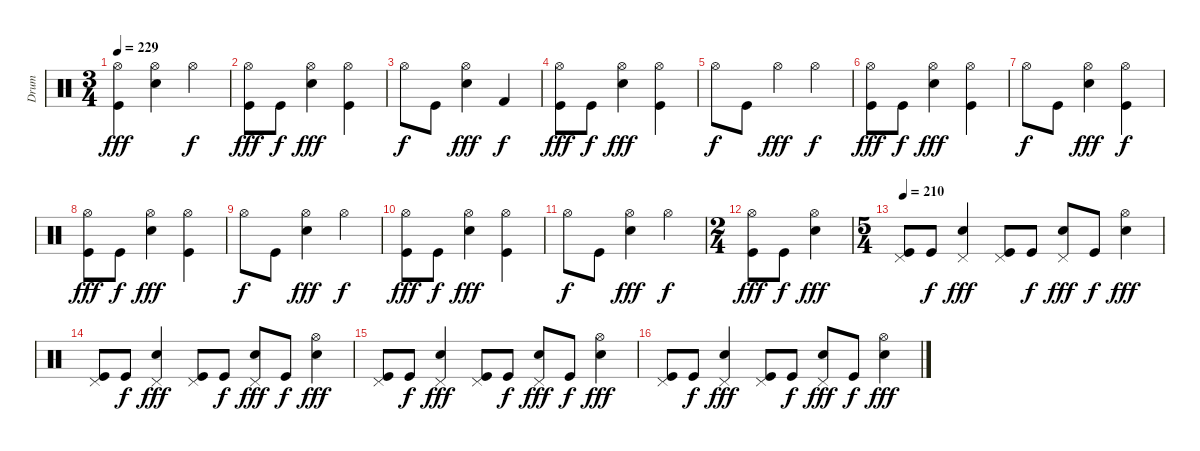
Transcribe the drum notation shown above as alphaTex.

\track ("Drum" "Drum") {instrument percussion}
\staff {score}
\articulation defaults
\ts (3 4)
\tempo 229
\clef neutral
\ks c
("Hi-Hat (open)" "Kick (hit)").4{dy fff} ("Hi-Hat (open)" "Snare (hit) 2").4 "Hi-Hat (open)".4{dy f} |
("Hi-Hat (open)" "Kick (hit)").8{dy fff} "Kick (hit)".8{dy f} ("Hi-Hat (open)" "Snare (hit) 2").4{dy fff} ("Hi-Hat (open)" "Kick (hit)").4 |
"Hi-Hat (open)".8{dy f} "Kick (hit)".8 ("Hi-Hat (open)" "Snare (hit) 2").4{dy fff} "Kick (hit) 2".4{dy f} |
("Hi-Hat (open)" "Kick (hit)").8{dy fff} "Kick (hit)".8{dy f} ("Hi-Hat (open)" "Snare (hit) 2").4{dy fff} ("Hi-Hat (open)" "Kick (hit)").4 |
"Hi-Hat (open)".8{dy f} "Kick (hit)".8 "Hi-Hat (open)".4{dy fff} "Hi-Hat (open)".4{dy f} |
("Hi-Hat (open)" "Kick (hit)").8{dy fff} "Kick (hit)".8{dy f} ("Hi-Hat (open)" "Snare (hit) 2").4{dy fff} ("Hi-Hat (open)" "Kick (hit)").4 |
"Hi-Hat (open)".8{dy f} "Kick (hit)".8 ("Hi-Hat (open)" "Snare (hit) 2").4{dy fff} ("Hi-Hat (open)" "Kick (hit)").4{dy f} |
("Hi-Hat (open)" "Kick (hit)").8{dy fff} "Kick (hit)".8{dy f} ("Hi-Hat (open)" "Snare (hit) 2").4{dy fff} ("Hi-Hat (open)" "Kick (hit)").4 |
"Hi-Hat (open)".8{dy f} "Kick (hit)".8 ("Hi-Hat (open)" "Snare (hit) 2").4{dy fff} "Hi-Hat (open)".4{dy f} |
("Hi-Hat (open)" "Kick (hit)").8{dy fff} "Kick (hit)".8{dy f} ("Hi-Hat (open)" "Snare (hit) 2").4{dy fff} ("Hi-Hat (open)" "Kick (hit)").4 |
"Hi-Hat (open)".8{dy f} "Kick (hit)".8 ("Hi-Hat (open)" "Snare (hit) 2").4{dy fff} "Hi-Hat (open)".4{dy f} |
\ts (2 4)
("Hi-Hat (open)" "Kick (hit)").8{dy fff} "Kick (hit)".8{dy f} ("Hi-Hat (open)" "Snare (hit) 2").4{dy fff} |
\ts (5 4)
\tempo 210
("Pedal Hi-Hat (hit)" "Kick (hit)").8 "Kick (hit)".8{dy f} ("Pedal Hi-Hat (hit)" "Snare (hit) 2").4{dy fff} ("Pedal Hi-Hat (hit)" "Kick (hit)").8 "Kick (hit)".8{dy f} ("Pedal Hi-Hat (hit)" "Snare (hit) 2").8{dy fff} "Kick (hit)".8{dy f} ("Hi-Hat (open)" "Snare (hit) 2").4{dy fff} |
("Pedal Hi-Hat (hit)" "Kick (hit)").8 "Kick (hit)".8{dy f} ("Pedal Hi-Hat (hit)" "Snare (hit) 2").4{dy fff} ("Pedal Hi-Hat (hit)" "Kick (hit)").8 "Kick (hit)".8{dy f} ("Pedal Hi-Hat (hit)" "Snare (hit) 2").8{dy fff} "Kick (hit)".8{dy f} ("Hi-Hat (open)" "Snare (hit) 2").4{dy fff} |
("Pedal Hi-Hat (hit)" "Kick (hit)").8 "Kick (hit)".8{dy f} ("Pedal Hi-Hat (hit)" "Snare (hit) 2").4{dy fff} ("Pedal Hi-Hat (hit)" "Kick (hit)").8 "Kick (hit)".8{dy f} ("Pedal Hi-Hat (hit)" "Snare (hit) 2").8{dy fff} "Kick (hit)".8{dy f} ("Hi-Hat (open)" "Snare (hit) 2").4{dy fff} |
("Pedal Hi-Hat (hit)" "Kick (hit)").8 "Kick (hit)".8{dy f} ("Pedal Hi-Hat (hit)" "Snare (hit) 2").4{dy fff} ("Pedal Hi-Hat (hit)" "Kick (hit)").8 "Kick (hit)".8{dy f} ("Pedal Hi-Hat (hit)" "Snare (hit) 2").8{dy fff} "Kick (hit)".8{dy f} ("Hi-Hat (open)" "Snare (hit) 2").4{dy fff}
